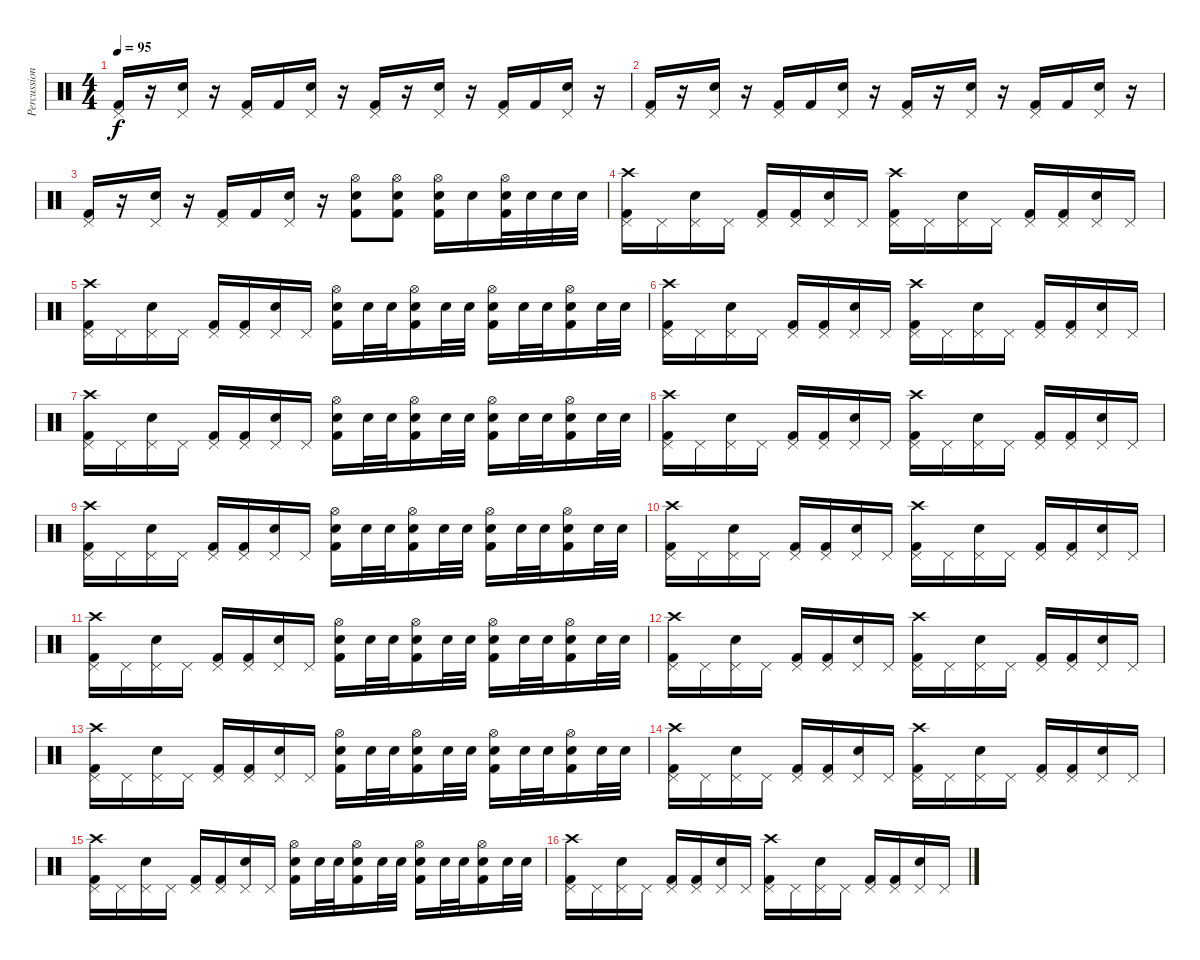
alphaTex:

\track ("Percussion" "Percussion") {instrument percussion}
\staff {score}
\articulation defaults
\ts (4 4)
\tempo 95
\clef neutral
\ks c
("Pedal Hi-Hat (hit)" "Kick (hit) 2").16{dy f} r.16 ("Pedal Hi-Hat (hit)" "Snare (hit) 2").16 r.16 ("Pedal Hi-Hat (hit)" "Kick (hit) 2").16 "Kick (hit) 2".16 ("Pedal Hi-Hat (hit)" "Snare (hit) 2").16 r.16 ("Pedal Hi-Hat (hit)" "Kick (hit) 2").16 r.16 ("Pedal Hi-Hat (hit)" "Snare (hit) 2").16 r.16 ("Pedal Hi-Hat (hit)" "Kick (hit) 2").16 "Kick (hit) 2".16 ("Pedal Hi-Hat (hit)" "Snare (hit) 2").16 r.16 |
("Pedal Hi-Hat (hit)" "Kick (hit) 2").16 r.16 ("Pedal Hi-Hat (hit)" "Snare (hit) 2").16 r.16 ("Pedal Hi-Hat (hit)" "Kick (hit) 2").16 "Kick (hit) 2".16 ("Pedal Hi-Hat (hit)" "Snare (hit) 2").16 r.16 ("Pedal Hi-Hat (hit)" "Kick (hit) 2").16 r.16 ("Pedal Hi-Hat (hit)" "Snare (hit) 2").16 r.16 ("Pedal Hi-Hat (hit)" "Kick (hit) 2").16 "Kick (hit) 2".16 ("Pedal Hi-Hat (hit)" "Snare (hit) 2").16 r.16 |
("Pedal Hi-Hat (hit)" "Kick (hit) 2").16 r.16 ("Pedal Hi-Hat (hit)" "Snare (hit) 2").16 r.16 ("Pedal Hi-Hat (hit)" "Kick (hit) 2").16 "Kick (hit) 2".16 ("Pedal Hi-Hat (hit)" "Snare (hit) 2").16 r.16 ("Snare (hit) 2" "Hi-Hat (open)" "Kick (hit) 2").8 ("Snare (hit) 2" "Hi-Hat (open)" "Kick (hit) 2").8 ("Snare (hit) 2" "Hi-Hat (open)" "Kick (hit) 2").16 "Snare (hit) 2".16 ("Snare (hit) 2" "Hi-Hat (open)" "Kick (hit) 2").32 "Snare (hit) 2".32 "Snare (hit) 2".32 "Snare (hit) 2".32 |
("Pedal Hi-Hat (hit)" "Crash high (hit)" "Kick (hit) 2").16 "Pedal Hi-Hat (hit)".16 ("Pedal Hi-Hat (hit)" "Snare (hit) 2").16 "Pedal Hi-Hat (hit)".16 ("Pedal Hi-Hat (hit)" "Kick (hit) 2").16 ("Pedal Hi-Hat (hit)" "Kick (hit) 2").16 ("Pedal Hi-Hat (hit)" "Snare (hit) 2").16 "Pedal Hi-Hat (hit)".16 ("Pedal Hi-Hat (hit)" "Crash high (hit)" "Kick (hit) 2").16 "Pedal Hi-Hat (hit)".16 ("Pedal Hi-Hat (hit)" "Snare (hit) 2").16 "Pedal Hi-Hat (hit)".16 ("Pedal Hi-Hat (hit)" "Kick (hit) 2").16 ("Pedal Hi-Hat (hit)" "Kick (hit) 2").16 ("Pedal Hi-Hat (hit)" "Snare (hit) 2").16 "Pedal Hi-Hat (hit)".16 |
("Pedal Hi-Hat (hit)" "Crash high (hit)" "Kick (hit) 2").16 "Pedal Hi-Hat (hit)".16 ("Pedal Hi-Hat (hit)" "Snare (hit) 2").16 "Pedal Hi-Hat (hit)".16 ("Pedal Hi-Hat (hit)" "Kick (hit) 2").16 ("Pedal Hi-Hat (hit)" "Kick (hit) 2").16 ("Pedal Hi-Hat (hit)" "Snare (hit) 2").16 "Pedal Hi-Hat (hit)".16 ("Kick (hit) 2" "Hi-Hat (open)" "Snare (hit) 2").16 "Snare (hit) 2".32 "Snare (hit) 2".32 ("Kick (hit) 2" "Hi-Hat (open)" "Snare (hit) 2").16 "Snare (hit) 2".32 "Snare (hit) 2".32 ("Kick (hit) 2" "Hi-Hat (open)" "Snare (hit) 2").16 "Snare (hit) 2".32 "Snare (hit) 2".32 ("Kick (hit) 2" "Hi-Hat (open)" "Snare (hit) 2").16 "Snare (hit) 2".32 "Snare (hit) 2".32 |
("Pedal Hi-Hat (hit)" "Crash high (hit)" "Kick (hit) 2").16 "Pedal Hi-Hat (hit)".16 ("Pedal Hi-Hat (hit)" "Snare (hit) 2").16 "Pedal Hi-Hat (hit)".16 ("Pedal Hi-Hat (hit)" "Kick (hit) 2").16 ("Pedal Hi-Hat (hit)" "Kick (hit) 2").16 ("Pedal Hi-Hat (hit)" "Snare (hit) 2").16 "Pedal Hi-Hat (hit)".16 ("Pedal Hi-Hat (hit)" "Crash high (hit)" "Kick (hit) 2").16 "Pedal Hi-Hat (hit)".16 ("Pedal Hi-Hat (hit)" "Snare (hit) 2").16 "Pedal Hi-Hat (hit)".16 ("Pedal Hi-Hat (hit)" "Kick (hit) 2").16 ("Pedal Hi-Hat (hit)" "Kick (hit) 2").16 ("Pedal Hi-Hat (hit)" "Snare (hit) 2").16 "Pedal Hi-Hat (hit)".16 |
("Pedal Hi-Hat (hit)" "Crash high (hit)" "Kick (hit) 2").16 "Pedal Hi-Hat (hit)".16 ("Pedal Hi-Hat (hit)" "Snare (hit) 2").16 "Pedal Hi-Hat (hit)".16 ("Pedal Hi-Hat (hit)" "Kick (hit) 2").16 ("Pedal Hi-Hat (hit)" "Kick (hit) 2").16 ("Pedal Hi-Hat (hit)" "Snare (hit) 2").16 "Pedal Hi-Hat (hit)".16 ("Kick (hit) 2" "Hi-Hat (open)" "Snare (hit) 2").16 "Snare (hit) 2".32 "Snare (hit) 2".32 ("Kick (hit) 2" "Hi-Hat (open)" "Snare (hit) 2").16 "Snare (hit) 2".32 "Snare (hit) 2".32 ("Kick (hit) 2" "Hi-Hat (open)" "Snare (hit) 2").16 "Snare (hit) 2".32 "Snare (hit) 2".32 ("Kick (hit) 2" "Hi-Hat (open)" "Snare (hit) 2").16 "Snare (hit) 2".32 "Snare (hit) 2".32 |
("Pedal Hi-Hat (hit)" "Crash high (hit)" "Kick (hit) 2").16 "Pedal Hi-Hat (hit)".16 ("Pedal Hi-Hat (hit)" "Snare (hit) 2").16 "Pedal Hi-Hat (hit)".16 ("Pedal Hi-Hat (hit)" "Kick (hit) 2").16 ("Pedal Hi-Hat (hit)" "Kick (hit) 2").16 ("Pedal Hi-Hat (hit)" "Snare (hit) 2").16 "Pedal Hi-Hat (hit)".16 ("Pedal Hi-Hat (hit)" "Crash high (hit)" "Kick (hit) 2").16 "Pedal Hi-Hat (hit)".16 ("Pedal Hi-Hat (hit)" "Snare (hit) 2").16 "Pedal Hi-Hat (hit)".16 ("Pedal Hi-Hat (hit)" "Kick (hit) 2").16 ("Pedal Hi-Hat (hit)" "Kick (hit) 2").16 ("Pedal Hi-Hat (hit)" "Snare (hit) 2").16 "Pedal Hi-Hat (hit)".16 |
("Pedal Hi-Hat (hit)" "Crash high (hit)" "Kick (hit) 2").16 "Pedal Hi-Hat (hit)".16 ("Pedal Hi-Hat (hit)" "Snare (hit) 2").16 "Pedal Hi-Hat (hit)".16 ("Pedal Hi-Hat (hit)" "Kick (hit) 2").16 ("Pedal Hi-Hat (hit)" "Kick (hit) 2").16 ("Pedal Hi-Hat (hit)" "Snare (hit) 2").16 "Pedal Hi-Hat (hit)".16 ("Kick (hit) 2" "Hi-Hat (open)" "Snare (hit) 2").16 "Snare (hit) 2".32 "Snare (hit) 2".32 ("Kick (hit) 2" "Hi-Hat (open)" "Snare (hit) 2").16 "Snare (hit) 2".32 "Snare (hit) 2".32 ("Kick (hit) 2" "Hi-Hat (open)" "Snare (hit) 2").16 "Snare (hit) 2".32 "Snare (hit) 2".32 ("Kick (hit) 2" "Hi-Hat (open)" "Snare (hit) 2").16 "Snare (hit) 2".32 "Snare (hit) 2".32 |
("Pedal Hi-Hat (hit)" "Crash high (hit)" "Kick (hit) 2").16 "Pedal Hi-Hat (hit)".16 ("Pedal Hi-Hat (hit)" "Snare (hit) 2").16 "Pedal Hi-Hat (hit)".16 ("Pedal Hi-Hat (hit)" "Kick (hit) 2").16 ("Pedal Hi-Hat (hit)" "Kick (hit) 2").16 ("Pedal Hi-Hat (hit)" "Snare (hit) 2").16 "Pedal Hi-Hat (hit)".16 ("Pedal Hi-Hat (hit)" "Crash high (hit)" "Kick (hit) 2").16 "Pedal Hi-Hat (hit)".16 ("Pedal Hi-Hat (hit)" "Snare (hit) 2").16 "Pedal Hi-Hat (hit)".16 ("Pedal Hi-Hat (hit)" "Kick (hit) 2").16 ("Pedal Hi-Hat (hit)" "Kick (hit) 2").16 ("Pedal Hi-Hat (hit)" "Snare (hit) 2").16 "Pedal Hi-Hat (hit)".16 |
("Pedal Hi-Hat (hit)" "Crash high (hit)" "Kick (hit) 2").16 "Pedal Hi-Hat (hit)".16 ("Pedal Hi-Hat (hit)" "Snare (hit) 2").16 "Pedal Hi-Hat (hit)".16 ("Pedal Hi-Hat (hit)" "Kick (hit) 2").16 ("Pedal Hi-Hat (hit)" "Kick (hit) 2").16 ("Pedal Hi-Hat (hit)" "Snare (hit) 2").16 "Pedal Hi-Hat (hit)".16 ("Kick (hit) 2" "Hi-Hat (open)" "Snare (hit) 2").16 "Snare (hit) 2".32 "Snare (hit) 2".32 ("Kick (hit) 2" "Hi-Hat (open)" "Snare (hit) 2").16 "Snare (hit) 2".32 "Snare (hit) 2".32 ("Kick (hit) 2" "Hi-Hat (open)" "Snare (hit) 2").16 "Snare (hit) 2".32 "Snare (hit) 2".32 ("Kick (hit) 2" "Hi-Hat (open)" "Snare (hit) 2").16 "Snare (hit) 2".32 "Snare (hit) 2".32 |
("Pedal Hi-Hat (hit)" "Crash high (hit)" "Kick (hit) 2").16 "Pedal Hi-Hat (hit)".16 ("Pedal Hi-Hat (hit)" "Snare (hit) 2").16 "Pedal Hi-Hat (hit)".16 ("Pedal Hi-Hat (hit)" "Kick (hit) 2").16 ("Pedal Hi-Hat (hit)" "Kick (hit) 2").16 ("Pedal Hi-Hat (hit)" "Snare (hit) 2").16 "Pedal Hi-Hat (hit)".16 ("Pedal Hi-Hat (hit)" "Crash high (hit)" "Kick (hit) 2").16 "Pedal Hi-Hat (hit)".16 ("Pedal Hi-Hat (hit)" "Snare (hit) 2").16 "Pedal Hi-Hat (hit)".16 ("Pedal Hi-Hat (hit)" "Kick (hit) 2").16 ("Pedal Hi-Hat (hit)" "Kick (hit) 2").16 ("Pedal Hi-Hat (hit)" "Snare (hit) 2").16 "Pedal Hi-Hat (hit)".16 |
("Pedal Hi-Hat (hit)" "Crash high (hit)" "Kick (hit) 2").16 "Pedal Hi-Hat (hit)".16 ("Pedal Hi-Hat (hit)" "Snare (hit) 2").16 "Pedal Hi-Hat (hit)".16 ("Pedal Hi-Hat (hit)" "Kick (hit) 2").16 ("Pedal Hi-Hat (hit)" "Kick (hit) 2").16 ("Pedal Hi-Hat (hit)" "Snare (hit) 2").16 "Pedal Hi-Hat (hit)".16 ("Kick (hit) 2" "Hi-Hat (open)" "Snare (hit) 2").16 "Snare (hit) 2".32 "Snare (hit) 2".32 ("Kick (hit) 2" "Hi-Hat (open)" "Snare (hit) 2").16 "Snare (hit) 2".32 "Snare (hit) 2".32 ("Kick (hit) 2" "Hi-Hat (open)" "Snare (hit) 2").16 "Snare (hit) 2".32 "Snare (hit) 2".32 ("Kick (hit) 2" "Hi-Hat (open)" "Snare (hit) 2").16 "Snare (hit) 2".32 "Snare (hit) 2".32 |
("Pedal Hi-Hat (hit)" "Crash high (hit)" "Kick (hit) 2").16 "Pedal Hi-Hat (hit)".16 ("Pedal Hi-Hat (hit)" "Snare (hit) 2").16 "Pedal Hi-Hat (hit)".16 ("Pedal Hi-Hat (hit)" "Kick (hit) 2").16 ("Pedal Hi-Hat (hit)" "Kick (hit) 2").16 ("Pedal Hi-Hat (hit)" "Snare (hit) 2").16 "Pedal Hi-Hat (hit)".16 ("Pedal Hi-Hat (hit)" "Crash high (hit)" "Kick (hit) 2").16 "Pedal Hi-Hat (hit)".16 ("Pedal Hi-Hat (hit)" "Snare (hit) 2").16 "Pedal Hi-Hat (hit)".16 ("Pedal Hi-Hat (hit)" "Kick (hit) 2").16 ("Pedal Hi-Hat (hit)" "Kick (hit) 2").16 ("Pedal Hi-Hat (hit)" "Snare (hit) 2").16 "Pedal Hi-Hat (hit)".16 |
("Pedal Hi-Hat (hit)" "Crash high (hit)" "Kick (hit) 2").16 "Pedal Hi-Hat (hit)".16 ("Pedal Hi-Hat (hit)" "Snare (hit) 2").16 "Pedal Hi-Hat (hit)".16 ("Pedal Hi-Hat (hit)" "Kick (hit) 2").16 ("Pedal Hi-Hat (hit)" "Kick (hit) 2").16 ("Pedal Hi-Hat (hit)" "Snare (hit) 2").16 "Pedal Hi-Hat (hit)".16 ("Kick (hit) 2" "Hi-Hat (open)" "Snare (hit) 2").16 "Snare (hit) 2".32 "Snare (hit) 2".32 ("Kick (hit) 2" "Hi-Hat (open)" "Snare (hit) 2").16 "Snare (hit) 2".32 "Snare (hit) 2".32 ("Kick (hit) 2" "Hi-Hat (open)" "Snare (hit) 2").16 "Snare (hit) 2".32 "Snare (hit) 2".32 ("Kick (hit) 2" "Hi-Hat (open)" "Snare (hit) 2").16 "Snare (hit) 2".32 "Snare (hit) 2".32 |
("Pedal Hi-Hat (hit)" "Crash high (hit)" "Kick (hit) 2").16 "Pedal Hi-Hat (hit)".16 ("Pedal Hi-Hat (hit)" "Snare (hit) 2").16 "Pedal Hi-Hat (hit)".16 ("Pedal Hi-Hat (hit)" "Kick (hit) 2").16 ("Pedal Hi-Hat (hit)" "Kick (hit) 2").16 ("Pedal Hi-Hat (hit)" "Snare (hit) 2").16 "Pedal Hi-Hat (hit)".16 ("Pedal Hi-Hat (hit)" "Crash high (hit)" "Kick (hit) 2").16 "Pedal Hi-Hat (hit)".16 ("Pedal Hi-Hat (hit)" "Snare (hit) 2").16 "Pedal Hi-Hat (hit)".16 ("Pedal Hi-Hat (hit)" "Kick (hit) 2").16 ("Pedal Hi-Hat (hit)" "Kick (hit) 2").16 ("Pedal Hi-Hat (hit)" "Snare (hit) 2").16 "Pedal Hi-Hat (hit)".16
